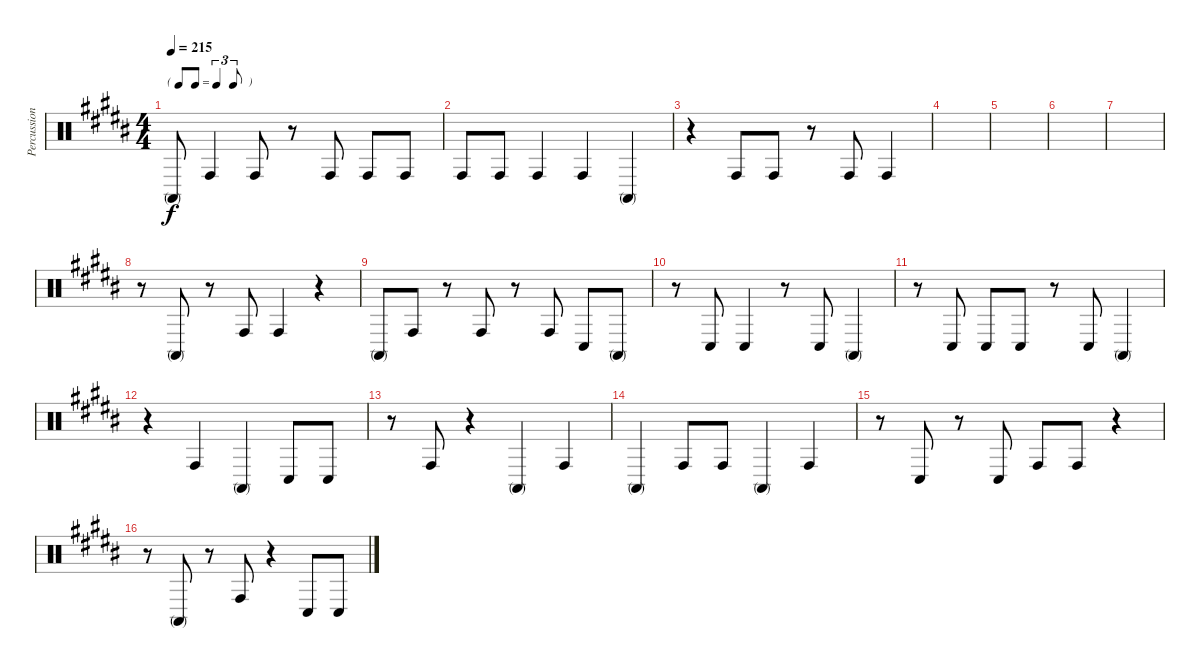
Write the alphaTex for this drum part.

\track ("Percussion A (Tainaka Ritsu)" "Percussion") {instrument percussion}
\staff {score}
\articulation defaults
\ts (4 4)
\tf triplet8th
\tempo 215
\clef neutral
\ks b "Conga high (mute)".8{dy f} "Conga high (hit)".4 "Conga high (hit)".8
r.8 "Conga high (hit)".8 "Conga high (hit)".8 "Conga high (hit)".8 |
"Conga high (hit)".8 "Conga high (hit)".8 "Conga high (hit)".4 "Conga high (hit)".4 "Conga high (mute)".4 |
r.4 "Conga high (hit)".8 "Conga high (hit)".8 r.8 "Conga high (hit)".8 "Conga high (hit)".4 |
|
|
|
|
r.8 "Conga high (mute)".8 r.8 "Conga high (hit)".8 "Conga high (hit)".4 r.4 |
"Conga high (mute)".8 "Conga high (hit)".8 r.8 "Conga high (hit)".8 r.8 "Conga high (hit)".8 "Conga low (hit)".8 "Conga high (mute)".8 |
r.8 "Conga low (hit)".8 "Conga low (hit)".4 r.8 "Conga low (hit)".8 "Conga high (mute)".4 |
r.8 "Conga low (hit)".8 "Conga low (hit)".8 "Conga low (hit)".8 r.8 "Conga low (hit)".8 "Conga high (mute)".4 |
r.4 "Conga high (hit)".4 "Conga high (mute)".4 "Conga low (hit)".8 "Conga low (hit)".8 |
r.8 "Conga high (hit)".8 r.4 "Conga high (mute)".4 "Conga high (hit)".4 |
"Conga high (mute)".4 "Conga high (hit)".8 "Conga high (hit)".8 "Conga high (mute)".4 "Conga high (hit)".4 |
r.8 "Conga low (hit)".8 r.8 "Conga low (hit)".8 "Conga high (hit)".8 "Conga high (hit)".8 r.4 |
r.8 "Conga high (mute)".8 r.8 "Conga high (hit)".8 r.4 "Conga low (hit)".8 "Conga low (hit)".8
